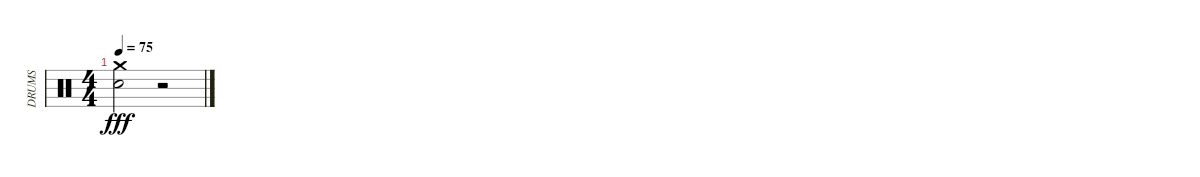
\track ("DRUMS" "DRUMS") {instrument percussion}
\staff {score}
\articulation defaults
\ts (4 4)
\tempo 75
\clef neutral
\ks c
("Crash medium (hit)" "Electric Snare (hit)").2{dy fff} r.2
